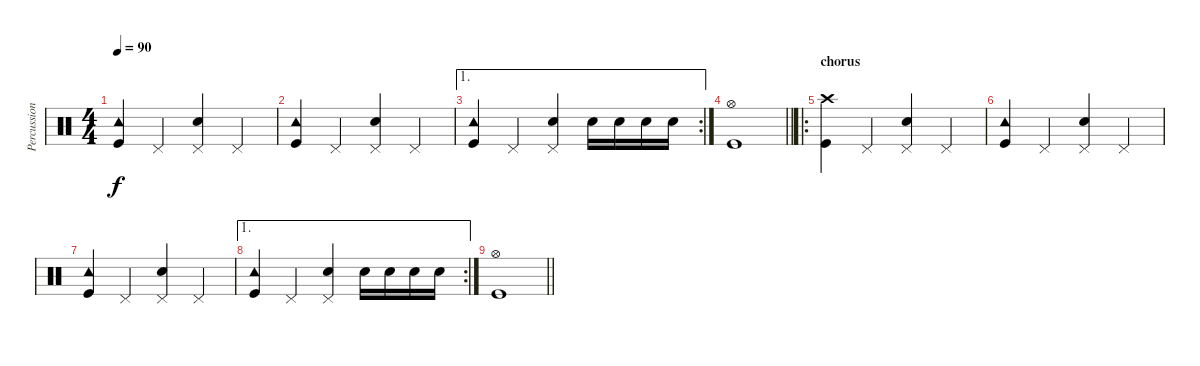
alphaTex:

\track ("Percussion" "Percussion") {instrument percussion}
\staff {score}
\articulation defaults
\ts (4 4)
\tempo 90
\clef neutral
\ks c
("Tambourine (hit)" "Kick (hit)").4{dy f} "Pedal Hi-Hat (hit)".4 ("Pedal Hi-Hat (hit)" "Snare (hit) 2").4 "Pedal Hi-Hat (hit)".4 |
("Tambourine (hit)" "Kick (hit)").4 "Pedal Hi-Hat (hit)".4 ("Pedal Hi-Hat (hit)" "Snare (hit) 2").4 "Pedal Hi-Hat (hit)".4 |
\ae 1
\rc 2
("Tambourine (hit)" "Kick (hit)").4 "Pedal Hi-Hat (hit)".4 ("Pedal Hi-Hat (hit)" "Snare (hit) 2").4 "Snare (hit) 2".16 "Snare (hit) 2".16 "Snare (hit) 2".16 "Snare (hit) 2".16 |
\barLineRight lightlight
("Hi-Hat (open)" "Kick (hit)").1 |
\ro
\section ("" "chorus")
("Crash high (hit)" "Kick (hit)").4 "Pedal Hi-Hat (hit)".4 ("Pedal Hi-Hat (hit)" "Snare (hit) 2").4 "Pedal Hi-Hat (hit)".4 |
("Tambourine (hit)" "Kick (hit)").4 "Pedal Hi-Hat (hit)".4 ("Pedal Hi-Hat (hit)" "Snare (hit) 2").4 "Pedal Hi-Hat (hit)".4 |
("Tambourine (hit)" "Kick (hit)").4 "Pedal Hi-Hat (hit)".4 ("Pedal Hi-Hat (hit)" "Snare (hit) 2").4 "Pedal Hi-Hat (hit)".4 |
\ae 1
\rc 2
("Tambourine (hit)" "Kick (hit)").4 "Pedal Hi-Hat (hit)".4 ("Pedal Hi-Hat (hit)" "Snare (hit) 2").4 "Snare (hit) 2".16 "Snare (hit) 2".16 "Snare (hit) 2".16 "Snare (hit) 2".16 |
\barLineRight lightlight
("Hi-Hat (open)" "Kick (hit)").1
